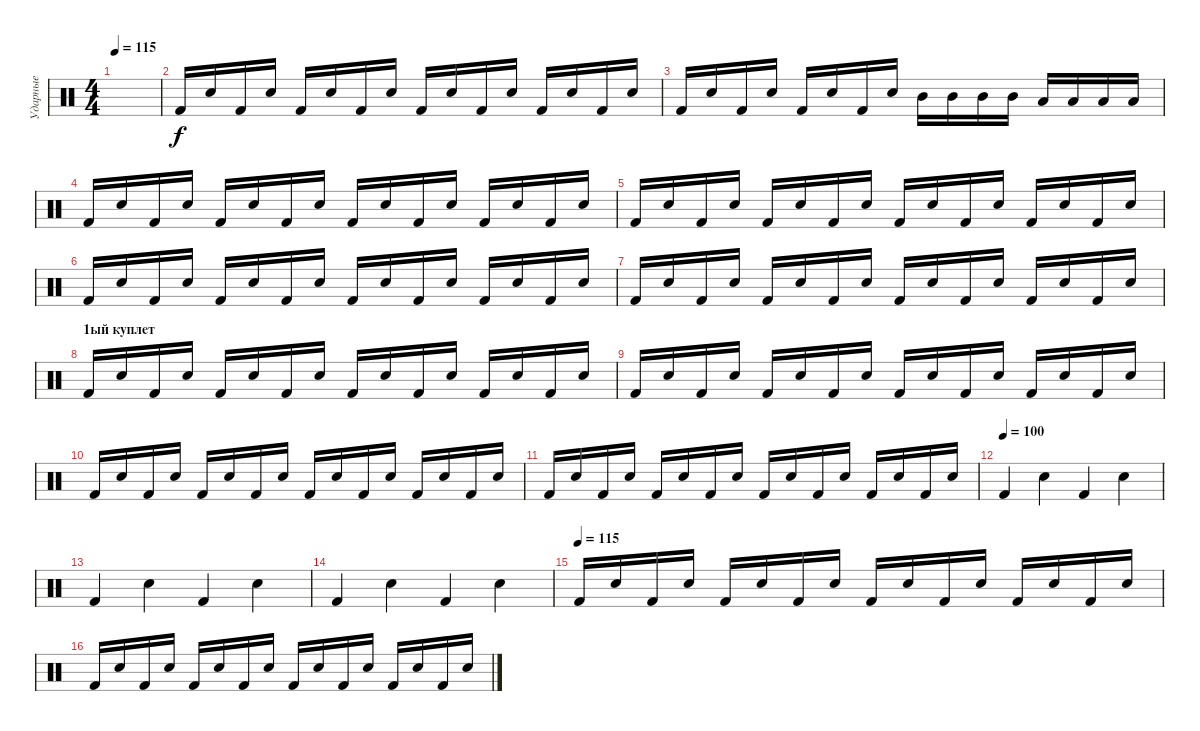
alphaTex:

\track ("Ударные" "Ударные") {instrument percussion}
\staff {score}
\articulation defaults
\ts (4 4)
\tempo 115
\clef neutral
\ks c
|
"Kick (hit) 2".16 "Electric Snare (hit)".16 "Kick (hit) 2".16 "Electric Snare (hit)".16 "Kick (hit) 2".16 "Electric Snare (hit)".16 "Kick (hit) 2".16 "Electric Snare (hit)".16 "Kick (hit) 2".16 "Electric Snare (hit)".16 "Kick (hit) 2".16 "Electric Snare (hit)".16 "Kick (hit) 2".16 "Electric Snare (hit)".16 "Kick (hit) 2".16 "Electric Snare (hit)".16 |
"Kick (hit) 2".16 "Electric Snare (hit)".16 "Kick (hit) 2".16 "Electric Snare (hit)".16 "Kick (hit) 2".16 "Electric Snare (hit)".16 "Kick (hit) 2".16 "Electric Snare (hit)".16 "Mid Tom (hit)".16 "Mid Tom (hit)".16 "Mid Tom (hit)".16 "Mid Tom (hit)".16 "Low Tom (hit)".16 "Low Tom (hit)".16 "Low Tom (hit)".16 "Low Tom (hit)".16 |
"Kick (hit) 2".16 "Electric Snare (hit)".16 "Kick (hit) 2".16 "Electric Snare (hit)".16 "Kick (hit) 2".16 "Electric Snare (hit)".16 "Kick (hit) 2".16 "Electric Snare (hit)".16 "Kick (hit) 2".16 "Electric Snare (hit)".16 "Kick (hit) 2".16 "Electric Snare (hit)".16 "Kick (hit) 2".16 "Electric Snare (hit)".16 "Kick (hit) 2".16 "Electric Snare (hit)".16 |
"Kick (hit) 2".16 "Electric Snare (hit)".16 "Kick (hit) 2".16 "Electric Snare (hit)".16 "Kick (hit) 2".16 "Electric Snare (hit)".16 "Kick (hit) 2".16 "Electric Snare (hit)".16 "Kick (hit) 2".16 "Electric Snare (hit)".16 "Kick (hit) 2".16 "Electric Snare (hit)".16 "Kick (hit) 2".16 "Electric Snare (hit)".16 "Kick (hit) 2".16 "Electric Snare (hit)".16 |
"Kick (hit) 2".16 "Electric Snare (hit)".16 "Kick (hit) 2".16 "Electric Snare (hit)".16 "Kick (hit) 2".16 "Electric Snare (hit)".16 "Kick (hit) 2".16 "Electric Snare (hit)".16 "Kick (hit) 2".16 "Electric Snare (hit)".16 "Kick (hit) 2".16 "Electric Snare (hit)".16 "Kick (hit) 2".16 "Electric Snare (hit)".16 "Kick (hit) 2".16 "Electric Snare (hit)".16 |
"Kick (hit) 2".16 "Electric Snare (hit)".16 "Kick (hit) 2".16 "Electric Snare (hit)".16 "Kick (hit) 2".16 "Electric Snare (hit)".16 "Kick (hit) 2".16 "Electric Snare (hit)".16 "Kick (hit) 2".16 "Electric Snare (hit)".16 "Kick (hit) 2".16 "Electric Snare (hit)".16 "Kick (hit) 2".16 "Electric Snare (hit)".16 "Kick (hit) 2".16 "Electric Snare (hit)".16 |
\section ("" "1ый куплет")
"Kick (hit) 2".16 "Electric Snare (hit)".16 "Kick (hit) 2".16 "Electric Snare (hit)".16 "Kick (hit) 2".16 "Electric Snare (hit)".16 "Kick (hit) 2".16 "Electric Snare (hit)".16 "Kick (hit) 2".16 "Electric Snare (hit)".16 "Kick (hit) 2".16 "Electric Snare (hit)".16 "Kick (hit) 2".16 "Electric Snare (hit)".16 "Kick (hit) 2".16 "Electric Snare (hit)".16 |
"Kick (hit) 2".16 "Electric Snare (hit)".16 "Kick (hit) 2".16 "Electric Snare (hit)".16 "Kick (hit) 2".16 "Electric Snare (hit)".16 "Kick (hit) 2".16 "Electric Snare (hit)".16 "Kick (hit) 2".16 "Electric Snare (hit)".16 "Kick (hit) 2".16 "Electric Snare (hit)".16 "Kick (hit) 2".16 "Electric Snare (hit)".16 "Kick (hit) 2".16 "Electric Snare (hit)".16 |
"Kick (hit) 2".16 "Electric Snare (hit)".16 "Kick (hit) 2".16 "Electric Snare (hit)".16 "Kick (hit) 2".16 "Electric Snare (hit)".16 "Kick (hit) 2".16 "Electric Snare (hit)".16 "Kick (hit) 2".16 "Electric Snare (hit)".16 "Kick (hit) 2".16 "Electric Snare (hit)".16 "Kick (hit) 2".16 "Electric Snare (hit)".16 "Kick (hit) 2".16 "Electric Snare (hit)".16 |
"Kick (hit) 2".16 "Electric Snare (hit)".16 "Kick (hit) 2".16 "Electric Snare (hit)".16 "Kick (hit) 2".16 "Electric Snare (hit)".16 "Kick (hit) 2".16 "Electric Snare (hit)".16 "Kick (hit) 2".16 "Electric Snare (hit)".16 "Kick (hit) 2".16 "Electric Snare (hit)".16 "Kick (hit) 2".16 "Electric Snare (hit)".16 "Kick (hit) 2".16 "Electric Snare (hit)".16 |
\tempo (100)
"Kick (hit) 2".4 "Electric Snare (hit)".4 "Kick (hit) 2".4 "Electric Snare (hit)".4 |
"Kick (hit) 2".4 "Electric Snare (hit)".4 "Kick (hit) 2".4 "Electric Snare (hit)".4 |
"Kick (hit) 2".4 "Electric Snare (hit)".4 "Kick (hit) 2".4 "Electric Snare (hit)".4 |
\tempo (115)
"Kick (hit) 2".16 "Electric Snare (hit)".16 "Kick (hit) 2".16 "Electric Snare (hit)".16 "Kick (hit) 2".16 "Electric Snare (hit)".16 "Kick (hit) 2".16 "Electric Snare (hit)".16 "Kick (hit) 2".16 "Electric Snare (hit)".16 "Kick (hit) 2".16 "Electric Snare (hit)".16 "Kick (hit) 2".16 "Electric Snare (hit)".16 "Kick (hit) 2".16 "Electric Snare (hit)".16 |
"Kick (hit) 2".16 "Electric Snare (hit)".16 "Kick (hit) 2".16 "Electric Snare (hit)".16 "Kick (hit) 2".16 "Electric Snare (hit)".16 "Kick (hit) 2".16 "Electric Snare (hit)".16 "Kick (hit) 2".16 "Electric Snare (hit)".16 "Kick (hit) 2".16 "Electric Snare (hit)".16 "Kick (hit) 2".16 "Electric Snare (hit)".16 "Kick (hit) 2".16 "Electric Snare (hit)".16
